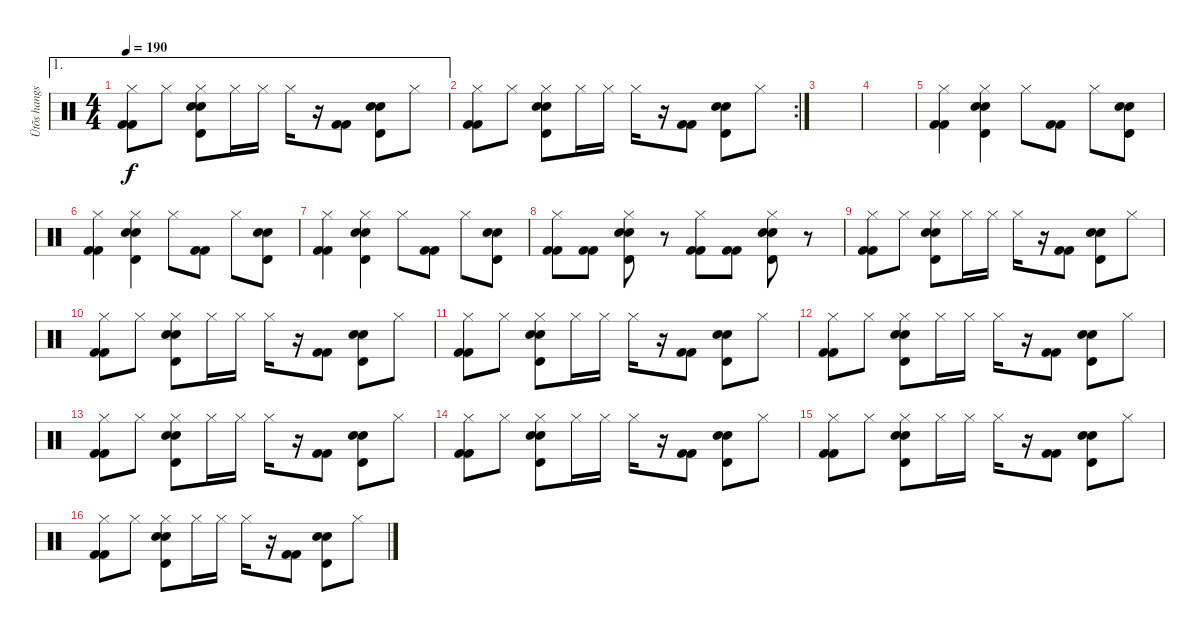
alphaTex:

\track ("Ütõs hangszer" "Ütõs hangs") {instrument percussion}
\staff {score}
\articulation defaults
\ae 1
\ts (4 4)
\tempo 190
\clef neutral
\ks c
("Hi-Hat (closed)" "Kick (hit) 2" "Kick (hit) 2").8{dy f} "Hi-Hat (closed)".8 ("Hi-Hat (closed)" "Timbale high (hit)" "Electric Snare (hit)" "Electric Snare (hit)").8 "Hi-Hat (closed)".16 "Hi-Hat (closed)".16 "Hi-Hat (closed)".16 r.16 ("Kick (hit) 2" "Kick (hit) 2").8 ("Timbale high (hit)" "Electric Snare (hit)" "Electric Snare (hit)").8 "Hi-Hat (closed)".8 |
\rc 2
("Hi-Hat (closed)" "Kick (hit) 2" "Kick (hit) 2").8 "Hi-Hat (closed)".8 ("Hi-Hat (closed)" "Timbale high (hit)" "Electric Snare (hit)" "Electric Snare (hit)").8 "Hi-Hat (closed)".16 "Hi-Hat (closed)".16 "Hi-Hat (closed)".16 r.16 ("Kick (hit) 2" "Kick (hit) 2").8 ("Timbale high (hit)" "Electric Snare (hit)" "Electric Snare (hit)").8 "Hi-Hat (closed)".8 |
|
|
("Hi-Hat (closed)" "Kick (hit) 2" "Kick (hit) 2").4 ("Hi-Hat (closed)" "Timbale high (hit)" "Electric Snare (hit)" "Electric Snare (hit)").4 "Hi-Hat (closed)".8 ("Kick (hit) 2" "Kick (hit) 2").8 "Hi-Hat (closed)".8 ("Timbale high (hit)" "Electric Snare (hit)" "Electric Snare (hit)").8 |
("Hi-Hat (closed)" "Kick (hit) 2" "Kick (hit) 2").4 ("Hi-Hat (closed)" "Timbale high (hit)" "Electric Snare (hit)" "Electric Snare (hit)").4 "Hi-Hat (closed)".8 ("Kick (hit) 2" "Kick (hit) 2").8 "Hi-Hat (closed)".8 ("Timbale high (hit)" "Electric Snare (hit)" "Electric Snare (hit)").8 |
("Hi-Hat (closed)" "Kick (hit) 2" "Kick (hit) 2").4 ("Hi-Hat (closed)" "Timbale high (hit)" "Electric Snare (hit)" "Electric Snare (hit)").4 "Hi-Hat (closed)".8 ("Kick (hit) 2" "Kick (hit) 2").8 "Hi-Hat (closed)".8 ("Timbale high (hit)" "Electric Snare (hit)" "Electric Snare (hit)").8 |
("Hi-Hat (closed)" "Kick (hit) 2" "Kick (hit) 2").8 ("Kick (hit) 2" "Kick (hit) 2").8 ("Hi-Hat (closed)" "Timbale high (hit)" "Electric Snare (hit)" "Electric Snare (hit)").8 r.8 ("Hi-Hat (closed)" "Kick (hit) 2" "Kick (hit) 2").8 ("Kick (hit) 2" "Kick (hit) 2").8 ("Hi-Hat (closed)" "Timbale high (hit)" "Electric Snare (hit)" "Electric Snare (hit)").8 r.8 |
("Hi-Hat (closed)" "Kick (hit) 2" "Kick (hit) 2").8 "Hi-Hat (closed)".8 ("Hi-Hat (closed)" "Timbale high (hit)" "Electric Snare (hit)" "Electric Snare (hit)").8 "Hi-Hat (closed)".16 "Hi-Hat (closed)".16 "Hi-Hat (closed)".16 r.16 ("Kick (hit) 2" "Kick (hit) 2").8 ("Timbale high (hit)" "Electric Snare (hit)" "Electric Snare (hit)").8 "Hi-Hat (closed)".8 |
("Hi-Hat (closed)" "Kick (hit) 2" "Kick (hit) 2").8 "Hi-Hat (closed)".8 ("Hi-Hat (closed)" "Timbale high (hit)" "Electric Snare (hit)" "Electric Snare (hit)").8 "Hi-Hat (closed)".16 "Hi-Hat (closed)".16 "Hi-Hat (closed)".16 r.16 ("Kick (hit) 2" "Kick (hit) 2").8 ("Timbale high (hit)" "Electric Snare (hit)" "Electric Snare (hit)").8 "Hi-Hat (closed)".8 |
("Hi-Hat (closed)" "Kick (hit) 2" "Kick (hit) 2").8 "Hi-Hat (closed)".8 ("Hi-Hat (closed)" "Timbale high (hit)" "Electric Snare (hit)" "Electric Snare (hit)").8 "Hi-Hat (closed)".16 "Hi-Hat (closed)".16 "Hi-Hat (closed)".16 r.16 ("Kick (hit) 2" "Kick (hit) 2").8 ("Timbale high (hit)" "Electric Snare (hit)" "Electric Snare (hit)").8 "Hi-Hat (closed)".8 |
("Hi-Hat (closed)" "Kick (hit) 2" "Kick (hit) 2").8 "Hi-Hat (closed)".8 ("Hi-Hat (closed)" "Timbale high (hit)" "Electric Snare (hit)" "Electric Snare (hit)").8 "Hi-Hat (closed)".16 "Hi-Hat (closed)".16 "Hi-Hat (closed)".16 r.16 ("Kick (hit) 2" "Kick (hit) 2").8 ("Timbale high (hit)" "Electric Snare (hit)" "Electric Snare (hit)").8 "Hi-Hat (closed)".8 |
("Hi-Hat (closed)" "Kick (hit) 2" "Kick (hit) 2").8 "Hi-Hat (closed)".8 ("Hi-Hat (closed)" "Timbale high (hit)" "Electric Snare (hit)" "Electric Snare (hit)").8 "Hi-Hat (closed)".16 "Hi-Hat (closed)".16 "Hi-Hat (closed)".16 r.16 ("Kick (hit) 2" "Kick (hit) 2").8 ("Timbale high (hit)" "Electric Snare (hit)" "Electric Snare (hit)").8 "Hi-Hat (closed)".8 |
("Hi-Hat (closed)" "Kick (hit) 2" "Kick (hit) 2").8 "Hi-Hat (closed)".8 ("Hi-Hat (closed)" "Timbale high (hit)" "Electric Snare (hit)" "Electric Snare (hit)").8 "Hi-Hat (closed)".16 "Hi-Hat (closed)".16 "Hi-Hat (closed)".16 r.16 ("Kick (hit) 2" "Kick (hit) 2").8 ("Timbale high (hit)" "Electric Snare (hit)" "Electric Snare (hit)").8 "Hi-Hat (closed)".8 |
("Hi-Hat (closed)" "Kick (hit) 2" "Kick (hit) 2").8 "Hi-Hat (closed)".8 ("Hi-Hat (closed)" "Timbale high (hit)" "Electric Snare (hit)" "Electric Snare (hit)").8 "Hi-Hat (closed)".16 "Hi-Hat (closed)".16 "Hi-Hat (closed)".16 r.16 ("Kick (hit) 2" "Kick (hit) 2").8 ("Timbale high (hit)" "Electric Snare (hit)" "Electric Snare (hit)").8 "Hi-Hat (closed)".8 |
("Hi-Hat (closed)" "Kick (hit) 2" "Kick (hit) 2").8 "Hi-Hat (closed)".8 ("Hi-Hat (closed)" "Timbale high (hit)" "Electric Snare (hit)" "Electric Snare (hit)").8 "Hi-Hat (closed)".16 "Hi-Hat (closed)".16 "Hi-Hat (closed)".16 r.16 ("Kick (hit) 2" "Kick (hit) 2").8 ("Timbale high (hit)" "Electric Snare (hit)" "Electric Snare (hit)").8 "Hi-Hat (closed)".8
